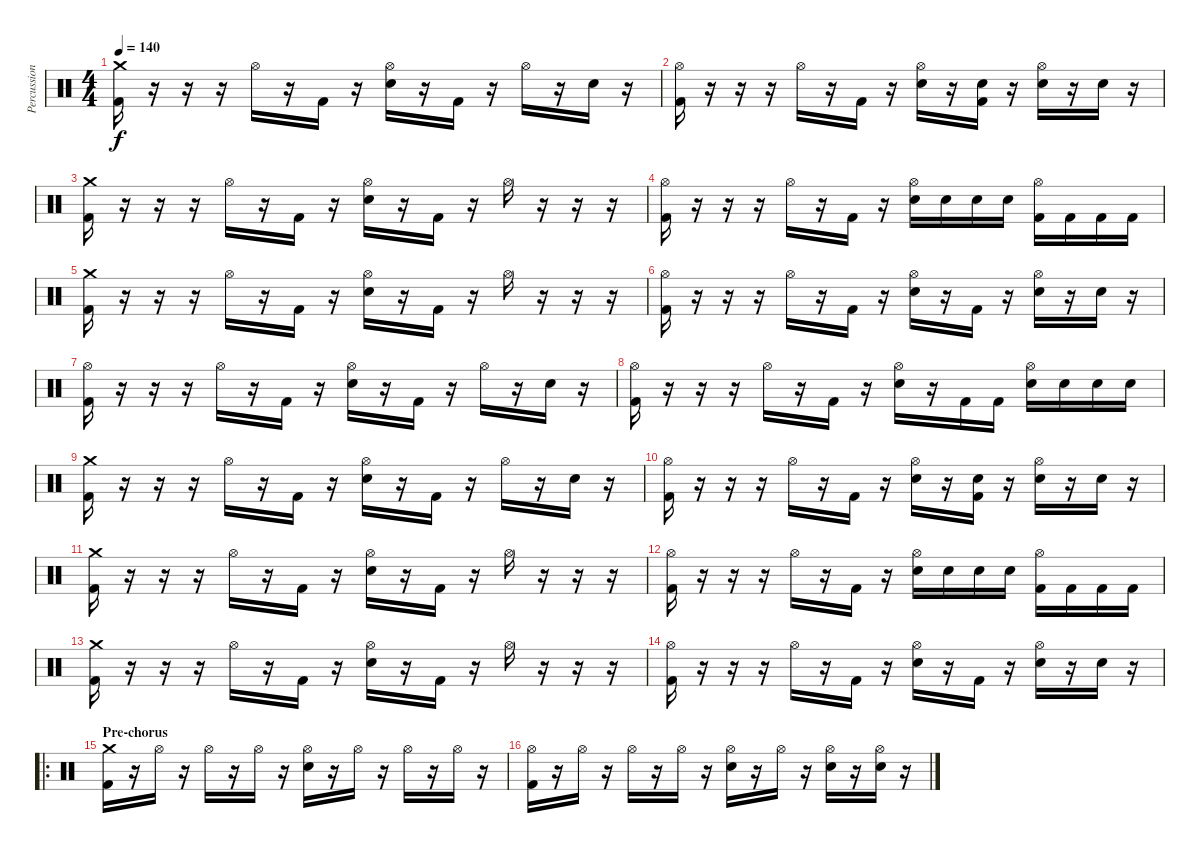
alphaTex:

\track ("Percussion" "Percussion") {instrument percussion}
\staff {score}
\articulation defaults
\ts (4 4)
\tempo 140
\clef neutral
\ks c
("Crash medium (hit)" "Kick (hit) 2").16{dy f} r.16 r.16 r.16 "Hi-Hat (open)".16 r.16 "Kick (hit) 2".16 r.16 ("Hi-Hat (open)" "Snare (hit) 2").16 r.16 "Kick (hit) 2".16 r.16 "Hi-Hat (open)".16 r.16 "Snare (hit) 2".16 r.16 |
("Hi-Hat (open)" "Kick (hit) 2").16 r.16 r.16 r.16 "Hi-Hat (open)".16 r.16 "Kick (hit) 2".16 r.16 ("Hi-Hat (open)" "Snare (hit) 2").16 r.16 ("Snare (hit) 2" "Kick (hit) 2").16 r.16 ("Hi-Hat (open)" "Snare (hit) 2").16 r.16 "Snare (hit) 2".16 r.16 |
("Crash medium (hit)" "Kick (hit) 2").16 r.16 r.16 r.16 "Hi-Hat (open)".16 r.16 "Kick (hit) 2".16 r.16 ("Hi-Hat (open)" "Snare (hit) 2").16 r.16 "Kick (hit) 2".16 r.16 "Hi-Hat (open)".16 r.16 r.16 r.16 |
("Hi-Hat (open)" "Kick (hit) 2").16 r.16 r.16 r.16 "Hi-Hat (open)".16 r.16 "Kick (hit) 2".16 r.16 ("Hi-Hat (open)" "Snare (hit) 2").16 "Snare (hit) 2".16 "Snare (hit) 2".16 "Snare (hit) 2".16 ("Hi-Hat (open)" "Kick (hit) 2").16 "Kick (hit) 2".16 "Kick (hit) 2".16 "Kick (hit) 2".16 |
("Crash medium (hit)" "Kick (hit) 2").16 r.16 r.16 r.16 "Hi-Hat (open)".16 r.16 "Kick (hit) 2".16 r.16 ("Hi-Hat (open)" "Snare (hit) 2").16 r.16 "Kick (hit) 2".16 r.16 "Hi-Hat (open)".16 r.16 r.16 r.16 |
("Hi-Hat (open)" "Kick (hit) 2").16 r.16 r.16 r.16 "Hi-Hat (open)".16 r.16 "Kick (hit) 2".16 r.16 ("Hi-Hat (open)" "Snare (hit) 2").16 r.16 "Kick (hit) 2".16 r.16 ("Hi-Hat (open)" "Snare (hit) 2").16 r.16 "Snare (hit) 2".16 r.16 |
("Hi-Hat (open)" "Kick (hit) 2").16 r.16 r.16 r.16 "Hi-Hat (open)".16 r.16 "Kick (hit) 2".16 r.16 ("Hi-Hat (open)" "Snare (hit) 2").16 r.16 "Kick (hit) 2".16 r.16 "Hi-Hat (open)".16 r.16 "Snare (hit) 2".16 r.16 |
("Hi-Hat (open)" "Kick (hit) 2").16 r.16 r.16 r.16 "Hi-Hat (open)".16 r.16 "Kick (hit) 2".16 r.16 ("Hi-Hat (open)" "Snare (hit) 2").16 r.16 "Kick (hit) 2".16 "Kick (hit) 2".16 ("Hi-Hat (open)" "Snare (hit) 2").16 "Snare (hit) 2".16 "Snare (hit) 2".16 "Snare (hit) 2".16 |
("Crash medium (hit)" "Kick (hit) 2").16 r.16 r.16 r.16 "Hi-Hat (open)".16 r.16 "Kick (hit) 2".16 r.16 ("Hi-Hat (open)" "Snare (hit) 2").16 r.16 "Kick (hit) 2".16 r.16 "Hi-Hat (open)".16 r.16 "Snare (hit) 2".16 r.16 |
("Hi-Hat (open)" "Kick (hit) 2").16 r.16 r.16 r.16 "Hi-Hat (open)".16 r.16 "Kick (hit) 2".16 r.16 ("Hi-Hat (open)" "Snare (hit) 2").16 r.16 ("Snare (hit) 2" "Kick (hit) 2").16 r.16 ("Hi-Hat (open)" "Snare (hit) 2").16 r.16 "Snare (hit) 2".16 r.16 |
("Crash medium (hit)" "Kick (hit) 2").16 r.16 r.16 r.16 "Hi-Hat (open)".16 r.16 "Kick (hit) 2".16 r.16 ("Hi-Hat (open)" "Snare (hit) 2").16 r.16 "Kick (hit) 2".16 r.16 "Hi-Hat (open)".16 r.16 r.16 r.16 |
("Hi-Hat (open)" "Kick (hit) 2").16 r.16 r.16 r.16 "Hi-Hat (open)".16 r.16 "Kick (hit) 2".16 r.16 ("Hi-Hat (open)" "Snare (hit) 2").16 "Snare (hit) 2".16 "Snare (hit) 2".16 "Snare (hit) 2".16 ("Hi-Hat (open)" "Kick (hit) 2").16 "Kick (hit) 2".16 "Kick (hit) 2".16 "Kick (hit) 2".16 |
("Crash medium (hit)" "Kick (hit) 2").16 r.16 r.16 r.16 "Hi-Hat (open)".16 r.16 "Kick (hit) 2".16 r.16 ("Hi-Hat (open)" "Snare (hit) 2").16 r.16 "Kick (hit) 2".16 r.16 "Hi-Hat (open)".16 r.16 r.16 r.16 |
("Hi-Hat (open)" "Kick (hit) 2").16 r.16 r.16 r.16 "Hi-Hat (open)".16 r.16 "Kick (hit) 2".16 r.16 ("Hi-Hat (open)" "Snare (hit) 2").16 r.16 "Kick (hit) 2".16 r.16 ("Hi-Hat (open)" "Snare (hit) 2").16 r.16 "Snare (hit) 2".16 r.16 |
\ro
\section ("" "Pre-chorus")
("Crash medium (hit)" "Kick (hit) 2").16 r.16 "Hi-Hat (open)".16 r.16 "Hi-Hat (open)".16 r.16 "Hi-Hat (open)".16 r.16 ("Hi-Hat (open)" "Snare (hit) 2").16 r.16 "Hi-Hat (open)".16 r.16 "Hi-Hat (open)".16 r.16 "Hi-Hat (open)".16 r.16 |
("Hi-Hat (open)" "Kick (hit) 2").16 r.16 "Hi-Hat (open)".16 r.16 "Hi-Hat (open)".16 r.16 "Hi-Hat (open)".16 r.16 ("Hi-Hat (open)" "Snare (hit) 2").16 r.16 "Hi-Hat (open)".16 r.16 ("Hi-Hat (open)" "Snare (hit) 2").16 r.16 ("Hi-Hat (open)" "Snare (hit) 2").16 r.16
